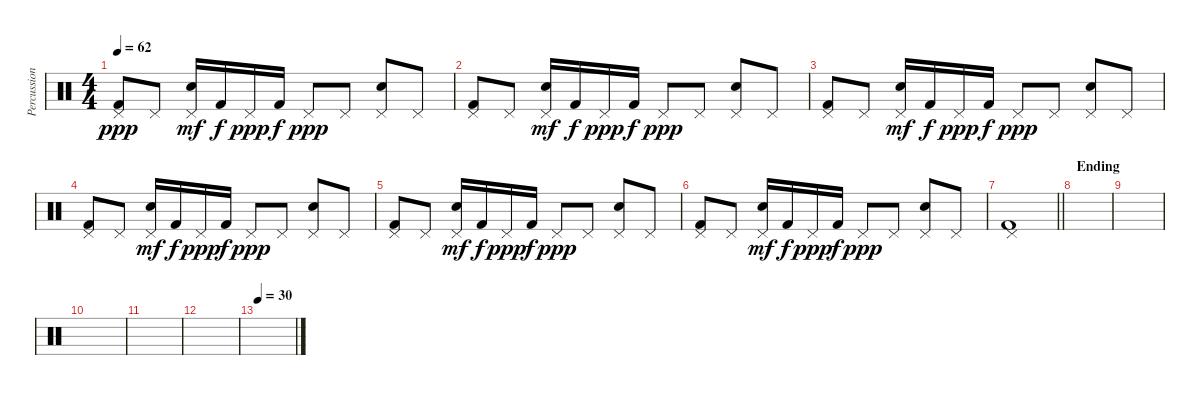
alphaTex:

\track ("Percussion" "Percussion") {instrument percussion}
\staff {score}
\articulation defaults
\ts (4 4)
\tempo 62
\clef neutral
\ks c
("Pedal Hi-Hat (hit)" "Kick (hit) 2").8{dy ppp} "Pedal Hi-Hat (hit)".8 ("Pedal Hi-Hat (hit)" "Electric Snare (hit)").16{dy mf} "Kick (hit) 2".16{dy f} "Pedal Hi-Hat (hit)".16{dy ppp} "Kick (hit) 2".16{dy f} "Pedal Hi-Hat (hit)".8{dy ppp} "Pedal Hi-Hat (hit)".8 ("Pedal Hi-Hat (hit)" "Electric Snare (hit)").8 "Pedal Hi-Hat (hit)".8 |
("Pedal Hi-Hat (hit)" "Kick (hit) 2").8 "Pedal Hi-Hat (hit)".8 ("Pedal Hi-Hat (hit)" "Electric Snare (hit)").16{dy mf} "Kick (hit) 2".16{dy f} "Pedal Hi-Hat (hit)".16{dy ppp} "Kick (hit) 2".16{dy f} "Pedal Hi-Hat (hit)".8{dy ppp} "Pedal Hi-Hat (hit)".8 ("Pedal Hi-Hat (hit)" "Electric Snare (hit)").8 "Pedal Hi-Hat (hit)".8 |
("Pedal Hi-Hat (hit)" "Kick (hit) 2").8 "Pedal Hi-Hat (hit)".8 ("Pedal Hi-Hat (hit)" "Electric Snare (hit)").16{dy mf} "Kick (hit) 2".16{dy f} "Pedal Hi-Hat (hit)".16{dy ppp} "Kick (hit) 2".16{dy f} "Pedal Hi-Hat (hit)".8{dy ppp} "Pedal Hi-Hat (hit)".8 ("Pedal Hi-Hat (hit)" "Electric Snare (hit)").8 "Pedal Hi-Hat (hit)".8 |
("Pedal Hi-Hat (hit)" "Kick (hit) 2").8 "Pedal Hi-Hat (hit)".8 ("Pedal Hi-Hat (hit)" "Electric Snare (hit)").16{dy mf} "Kick (hit) 2".16{dy f} "Pedal Hi-Hat (hit)".16{dy ppp} "Kick (hit) 2".16{dy f} "Pedal Hi-Hat (hit)".8{dy ppp} "Pedal Hi-Hat (hit)".8 ("Pedal Hi-Hat (hit)" "Electric Snare (hit)").8 "Pedal Hi-Hat (hit)".8 |
("Pedal Hi-Hat (hit)" "Kick (hit) 2").8 "Pedal Hi-Hat (hit)".8 ("Pedal Hi-Hat (hit)" "Electric Snare (hit)").16{dy mf} "Kick (hit) 2".16{dy f} "Pedal Hi-Hat (hit)".16{dy ppp} "Kick (hit) 2".16{dy f} "Pedal Hi-Hat (hit)".8{dy ppp} "Pedal Hi-Hat (hit)".8 ("Pedal Hi-Hat (hit)" "Electric Snare (hit)").8 "Pedal Hi-Hat (hit)".8 |
("Pedal Hi-Hat (hit)" "Kick (hit) 2").8 "Pedal Hi-Hat (hit)".8 ("Pedal Hi-Hat (hit)" "Electric Snare (hit)").16{dy mf} "Kick (hit) 2".16{dy f} "Pedal Hi-Hat (hit)".16{dy ppp} "Kick (hit) 2".16{dy f} "Pedal Hi-Hat (hit)".8{dy ppp} "Pedal Hi-Hat (hit)".8 ("Pedal Hi-Hat (hit)" "Electric Snare (hit)").8 "Pedal Hi-Hat (hit)".8 |
\barLineRight lightlight
("Pedal Hi-Hat (hit)" "Kick (hit) 2").1 |
\section ("" "Ending")
|
|
|
|
|
\tempo 30
